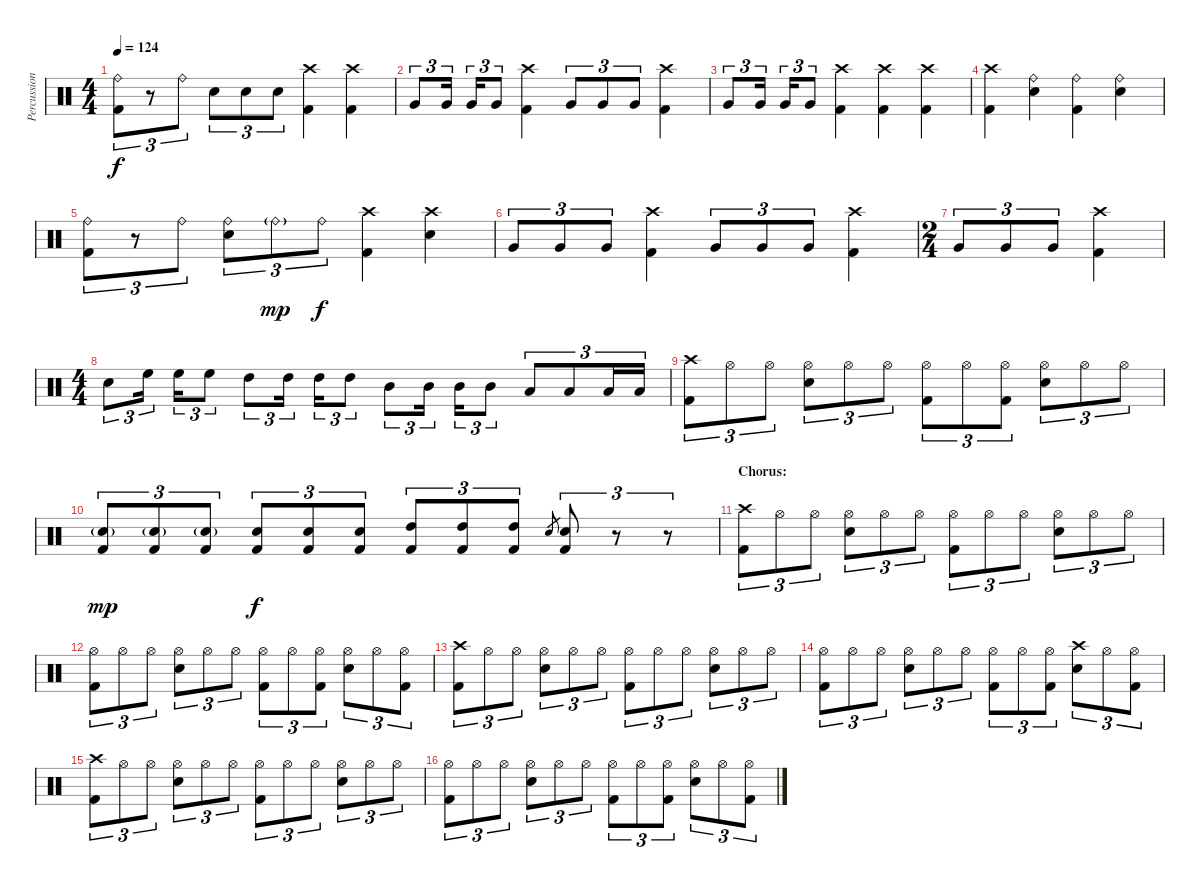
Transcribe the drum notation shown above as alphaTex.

\track ("Percussion" "Percussion") {instrument percussion}
\staff {score}
\articulation defaults
\ts (4 4)
\tempo 124
\clef neutral
\ks c
("Ride (bell)" "Kick (hit) 2").8{tu (3 2) dy f} r.8{tu (3 2)} "Ride (bell)".8{tu (3 2)} "Snare (hit) 2".8{tu (3 2)} "Snare (hit) 2".8{tu (3 2)} "Snare (hit) 2".8{tu (3 2)} ("Crash high (hit)" "Kick (hit) 2").4 ("Crash high (hit)" "Kick (hit) 2").4 |
"Very Low Tom (hit)".8{tu (3 2)} "Very Low Tom (hit)".16{tu (3 2)} "Very Low Tom (hit)".16{tu (3 2)} "Very Low Tom (hit)".8{tu (3 2)} ("Crash high (hit)" "Kick (hit) 2").4 "Very Low Tom (hit)".8{tu (3 2)} "Very Low Tom (hit)".8{tu (3 2)} "Very Low Tom (hit)".8{tu (3 2)} ("Crash high (hit)" "Kick (hit) 2").4 |
"Very Low Tom (hit)".8{tu (3 2)} "Very Low Tom (hit)".16{tu (3 2)} "Very Low Tom (hit)".16{tu (3 2)} "Very Low Tom (hit)".8{tu (3 2)} ("Crash high (hit)" "Kick (hit) 2").4 ("Crash high (hit)" "Kick (hit) 2").4 ("Crash high (hit)" "Kick (hit) 2").4 |
("Crash high (hit)" "Kick (hit) 2").4 ("Ride (bell)" "Snare (hit) 2").4 ("Ride (bell)" "Kick (hit) 2").4 ("Ride (bell)" "Snare (hit) 2").4 |
("Ride (bell)" "Kick (hit) 2").8{tu (3 2)} r.8{tu (3 2)} "Ride (bell)".8{tu (3 2)} ("Ride (bell)" "Snare (hit) 2").8{tu (3 2)} "Ride (bell)"{g}.8{tu (3 2) dy mp} "Ride (bell)".8{tu (3 2) dy f} ("Crash high (hit)" "Kick (hit) 2").4 ("Crash high (hit)" "Snare (hit) 2").4 |
"Very Low Tom (hit)".8{tu (3 2)} "Very Low Tom (hit)".8{tu (3 2)} "Very Low Tom (hit)".8{tu (3 2)} ("Crash high (hit)" "Kick (hit) 2").4 "Very Low Tom (hit)".8{tu (3 2)} "Very Low Tom (hit)".8{tu (3 2)} "Very Low Tom (hit)".8{tu (3 2)} ("Crash high (hit)" "Kick (hit) 2").4 |
\ts (2 4)
"Very Low Tom (hit)".8{tu (3 2)} "Very Low Tom (hit)".8{tu (3 2)} "Very Low Tom (hit)".8{tu (3 2)} ("Crash high (hit)" "Kick (hit) 2").4 |
\ts (4 4)
"Snare (hit) 2".8{tu (3 2)} "High Floor Tom (hit)".16{tu (3 2)} "High Floor Tom (hit)".16{tu (3 2)} "High Floor Tom (hit)".8{tu (3 2)} "High Tom (hit)".8{tu (3 2)} "High Tom (hit)".16{tu (3 2)} "High Tom (hit)".16{tu (3 2)} "High Tom (hit)".8{tu (3 2)} "Mid Tom (hit)".8{tu (3 2)} "Mid Tom (hit)".16{tu (3 2)} "Mid Tom (hit)".16{tu (3 2)} "Mid Tom (hit)".8{tu (3 2)} "Low Tom (hit)".8{tu (3 2)} "Low Tom (hit)".8{tu (3 2)} "Low Tom (hit)".16{tu (3 2)} "Low Tom (hit)".16{tu (3 2)} |
("Crash high (hit)" "Kick (hit) 2").8{tu (3 2)} "Hi-Hat (open)".8{tu (3 2)} "Hi-Hat (open)".8{tu (3 2)} ("Hi-Hat (open)" "Snare (hit) 2").8{tu (3 2)} "Hi-Hat (open)".8{tu (3 2)} "Hi-Hat (open)".8{tu (3 2)} ("Hi-Hat (open)" "Kick (hit) 2").8{tu (3 2)} "Hi-Hat (open)".8{tu (3 2)} ("Hi-Hat (open)" "Kick (hit) 2").8{tu (3 2)} ("Hi-Hat (open)" "Snare (hit) 2").8{tu (3 2)} "Hi-Hat (open)".8{tu (3 2)} "Hi-Hat (open)".8{tu (3 2)} |
("Snare (hit) 2"{g} "Kick (hit) 2").8{tu (3 2) dy mp} ("Snare (hit) 2"{g} "Kick (hit) 2").8{tu (3 2)} ("Snare (hit) 2"{g} "Kick (hit) 2").8{tu (3 2)} ("Snare (hit) 2" "Kick (hit) 2").8{tu (3 2) dy f} ("Snare (hit) 2" "Kick (hit) 2").8{tu (3 2)} ("Snare (hit) 2" "Kick (hit) 2").8{tu (3 2)} ("High Tom (hit)" "Kick (hit) 2").8{tu (3 2)} ("High Tom (hit)" "Kick (hit) 2").8{tu (3 2)} ("High Tom (hit)" "Kick (hit) 2").8{tu (3 2)} "Snare (hit) 2".8{gr} ("Snare (hit) 2" "Kick (hit) 2").8{tu (3 2)} r.8{tu (3 2)} r.8{tu (3 2)} |
\section ("" "Chorus:")
("Crash high (hit)" "Kick (hit) 2").8{tu (3 2)} "Hi-Hat (open)".8{tu (3 2)} "Hi-Hat (open)".8{tu (3 2)} ("Hi-Hat (open)" "Snare (hit) 2").8{tu (3 2)} "Hi-Hat (open)".8{tu (3 2)} "Hi-Hat (open)".8{tu (3 2)} ("Hi-Hat (open)" "Kick (hit) 2").8{tu (3 2)} "Hi-Hat (open)".8{tu (3 2)} "Hi-Hat (open)".8{tu (3 2)} ("Hi-Hat (open)" "Snare (hit) 2").8{tu (3 2)} "Hi-Hat (open)".8{tu (3 2)} "Hi-Hat (open)".8{tu (3 2)} |
("Hi-Hat (open)" "Kick (hit) 2").8{tu (3 2)} "Hi-Hat (open)".8{tu (3 2)} "Hi-Hat (open)".8{tu (3 2)} ("Hi-Hat (open)" "Snare (hit) 2").8{tu (3 2)} "Hi-Hat (open)".8{tu (3 2)} "Hi-Hat (open)".8{tu (3 2)} ("Hi-Hat (open)" "Kick (hit) 2").8{tu (3 2)} "Hi-Hat (open)".8{tu (3 2)} ("Hi-Hat (open)" "Kick (hit) 2").8{tu (3 2)} ("Hi-Hat (open)" "Snare (hit) 2").8{tu (3 2)} "Hi-Hat (open)".8{tu (3 2)} ("Hi-Hat (open)" "Kick (hit) 2").8{tu (3 2)} |
("Crash high (hit)" "Kick (hit) 2").8{tu (3 2)} "Hi-Hat (open)".8{tu (3 2)} "Hi-Hat (open)".8{tu (3 2)} ("Hi-Hat (open)" "Snare (hit) 2").8{tu (3 2)} "Hi-Hat (open)".8{tu (3 2)} "Hi-Hat (open)".8{tu (3 2)} ("Hi-Hat (open)" "Kick (hit) 2").8{tu (3 2)} "Hi-Hat (open)".8{tu (3 2)} "Hi-Hat (open)".8{tu (3 2)} ("Hi-Hat (open)" "Snare (hit) 2").8{tu (3 2)} "Hi-Hat (open)".8{tu (3 2)} "Hi-Hat (open)".8{tu (3 2)} |
("Hi-Hat (open)" "Kick (hit) 2").8{tu (3 2)} "Hi-Hat (open)".8{tu (3 2)} "Hi-Hat (open)".8{tu (3 2)} ("Hi-Hat (open)" "Snare (hit) 2").8{tu (3 2)} "Hi-Hat (open)".8{tu (3 2)} "Hi-Hat (open)".8{tu (3 2)} ("Hi-Hat (open)" "Kick (hit) 2").8{tu (3 2)} "Hi-Hat (open)".8{tu (3 2)} ("Hi-Hat (open)" "Kick (hit) 2").8{tu (3 2)} ("Crash high (hit)" "Snare (hit) 2").8{tu (3 2)} "Hi-Hat (open)".8{tu (3 2)} ("Hi-Hat (open)" "Kick (hit) 2").8{tu (3 2)} |
("Crash high (hit)" "Kick (hit) 2").8{tu (3 2)} "Hi-Hat (open)".8{tu (3 2)} "Hi-Hat (open)".8{tu (3 2)} ("Hi-Hat (open)" "Snare (hit) 2").8{tu (3 2)} "Hi-Hat (open)".8{tu (3 2)} "Hi-Hat (open)".8{tu (3 2)} ("Hi-Hat (open)" "Kick (hit) 2").8{tu (3 2)} "Hi-Hat (open)".8{tu (3 2)} "Hi-Hat (open)".8{tu (3 2)} ("Hi-Hat (open)" "Snare (hit) 2").8{tu (3 2)} "Hi-Hat (open)".8{tu (3 2)} "Hi-Hat (open)".8{tu (3 2)} |
("Hi-Hat (open)" "Kick (hit) 2").8{tu (3 2)} "Hi-Hat (open)".8{tu (3 2)} "Hi-Hat (open)".8{tu (3 2)} ("Hi-Hat (open)" "Snare (hit) 2").8{tu (3 2)} "Hi-Hat (open)".8{tu (3 2)} "Hi-Hat (open)".8{tu (3 2)} ("Hi-Hat (open)" "Kick (hit) 2").8{tu (3 2)} "Hi-Hat (open)".8{tu (3 2)} ("Hi-Hat (open)" "Kick (hit) 2").8{tu (3 2)} ("Hi-Hat (open)" "Snare (hit) 2").8{tu (3 2)} "Hi-Hat (open)".8{tu (3 2)} ("Hi-Hat (open)" "Kick (hit) 2").8{tu (3 2)}
